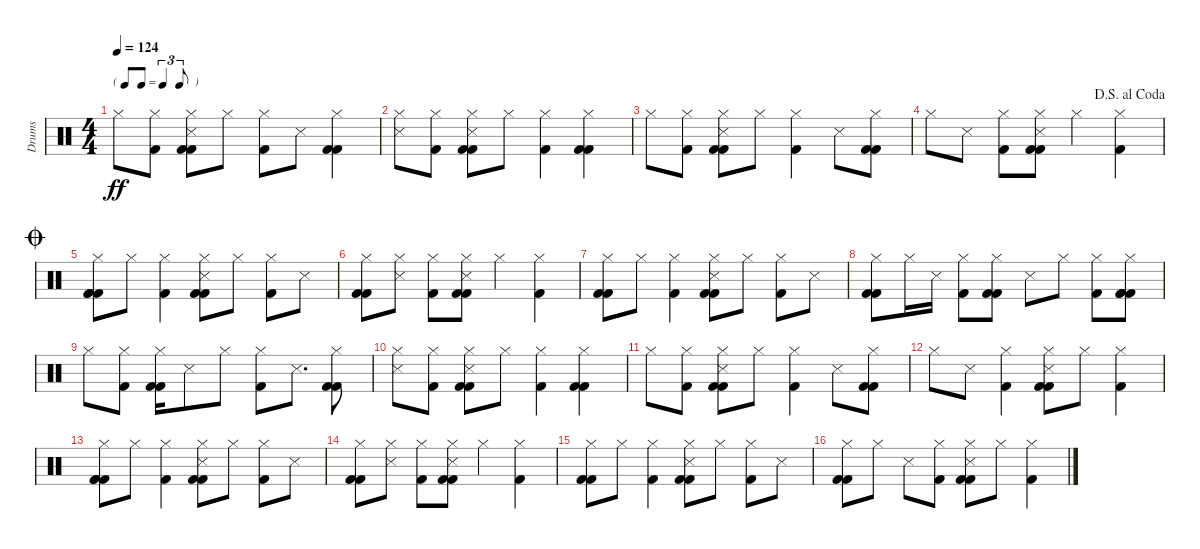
\track ("Drums" "Drums") {instrument percussion}
\staff {score}
\articulation defaults
\ts (4 4)
\tf triplet8th
\tempo 124
\clef neutral
\ks c "Hi-Hat (closed)".8{dy ff}
("Kick (hit) 2" "Hi-Hat (closed)").8 ("Kick (hit) 2" "Kick (hit) 2" "Hi-Hat (closed)" "Snare (side stick) 3").8 "Hi-Hat (closed)".8 ("Kick (hit) 2" "Hi-Hat (closed)").8 "Snare (side stick) 3".8 ("Kick (hit) 2" "Kick (hit) 2" "Hi-Hat (closed)").4 |
("Snare (side stick) 3" "Hi-Hat (closed)").8 ("Kick (hit) 2" "Hi-Hat (closed)").8 ("Snare (side stick) 3" "Kick (hit) 2" "Kick (hit) 2" "Hi-Hat (closed)").8 "Hi-Hat (closed)".8 ("Kick (hit) 2" "Hi-Hat (closed)").4 ("Kick (hit) 2" "Kick (hit) 2" "Hi-Hat (closed)").4 |
"Hi-Hat (closed)".8 ("Kick (hit) 2" "Hi-Hat (closed)").8 ("Snare (side stick) 3" "Kick (hit) 2" "Kick (hit) 2" "Hi-Hat (closed)").8 "Hi-Hat (closed)".8 ("Kick (hit) 2" "Hi-Hat (closed)").4 "Snare (side stick) 3".8 ("Kick (hit) 2" "Kick (hit) 2" "Hi-Hat (closed)").8 |
\jump dalsegnoalcoda "Hi-Hat (closed)".8 "Snare (side stick) 3".8
("Kick (hit) 2" "Hi-Hat (closed)").8 ("Kick (hit) 2" "Kick (hit) 2" "Hi-Hat (closed)" "Snare (side stick) 3").8 "Hi-Hat (closed)".4 ("Kick (hit) 2" "Hi-Hat (closed)").4 |
\jump coda
("Kick (hit) 2" "Kick (hit) 2" "Kick (hit) 2" "Hi-Hat (closed)").8 "Hi-Hat (closed)".8 ("Kick (hit) 2" "Hi-Hat (closed)").4 ("Kick (hit) 2" "Kick (hit) 2" "Hi-Hat (closed)" "Snare (side stick) 3").8 "Hi-Hat (closed)".8 ("Kick (hit) 2" "Hi-Hat (closed)").8 "Snare (side stick) 3".8 |
("Kick (hit) 2" "Kick (hit) 2" "Hi-Hat (closed)").8 ("Snare (side stick) 3" "Hi-Hat (closed)").8 ("Kick (hit) 2" "Hi-Hat (closed)").8 ("Snare (side stick) 3" "Kick (hit) 2" "Kick (hit) 2" "Hi-Hat (closed)").8 "Hi-Hat (closed)".4 ("Kick (hit) 2" "Hi-Hat (closed)").4 |
("Kick (hit) 2" "Kick (hit) 2" "Hi-Hat (closed)").8 "Hi-Hat (closed)".8 ("Kick (hit) 2" "Hi-Hat (closed)").4 ("Snare (side stick) 3" "Kick (hit) 2" "Kick (hit) 2" "Hi-Hat (closed)").8 "Hi-Hat (closed)".8 ("Kick (hit) 2" "Hi-Hat (closed)").8 "Snare (side stick) 3".8 |
("Kick (hit) 2" "Kick (hit) 2" "Hi-Hat (closed)").8 "Hi-Hat (closed)".16 "Snare (side stick) 3".16 ("Kick (hit) 2" "Hi-Hat (closed)").8 ("Kick (hit) 2" "Kick (hit) 2" "Hi-Hat (closed)").8 "Snare (side stick) 3".8 "Hi-Hat (closed)".8 ("Kick (hit) 2" "Hi-Hat (closed)").8 ("Kick (hit) 2" "Kick (hit) 2" "Kick (hit) 2" "Hi-Hat (closed)").8 |
"Hi-Hat (closed)".8 ("Kick (hit) 2" "Hi-Hat (closed)").8 ("Kick (hit) 2" "Kick (hit) 2" "Hi-Hat (closed)").16 "Snare (side stick) 3".8 "Hi-Hat (closed)".8 ("Kick (hit) 2" "Hi-Hat (closed)").8 "Snare (side stick) 3".8{d} ("Kick (hit) 2" "Kick (hit) 2" "Hi-Hat (closed)").8 |
("Snare (side stick) 3" "Hi-Hat (closed)").8 ("Kick (hit) 2" "Hi-Hat (closed)").8 ("Snare (side stick) 3" "Kick (hit) 2" "Kick (hit) 2" "Hi-Hat (closed)").8 "Hi-Hat (closed)".8 ("Kick (hit) 2" "Hi-Hat (closed)").4 ("Kick (hit) 2" "Kick (hit) 2" "Hi-Hat (closed)").4 |
"Hi-Hat (closed)".8 ("Kick (hit) 2" "Hi-Hat (closed)").8 ("Snare (side stick) 3" "Kick (hit) 2" "Kick (hit) 2" "Hi-Hat (closed)").8 "Hi-Hat (closed)".8 ("Kick (hit) 2" "Hi-Hat (closed)").4 "Snare (side stick) 3".8 ("Kick (hit) 2" "Kick (hit) 2" "Hi-Hat (closed)").8 |
"Hi-Hat (closed)".8 "Snare (side stick) 3".8 ("Kick (hit) 2" "Hi-Hat (closed)").4 ("Kick (hit) 2" "Kick (hit) 2" "Hi-Hat (closed)" "Snare (side stick) 3").8 "Hi-Hat (closed)".8 ("Kick (hit) 2" "Hi-Hat (closed)").4 |
("Kick (hit) 2" "Kick (hit) 2" "Kick (hit) 2" "Hi-Hat (closed)").8 "Hi-Hat (closed)".8 ("Kick (hit) 2" "Hi-Hat (closed)").4 ("Kick (hit) 2" "Kick (hit) 2" "Hi-Hat (closed)" "Snare (side stick) 3").8 "Hi-Hat (closed)".8 ("Kick (hit) 2" "Hi-Hat (closed)").8 "Snare (side stick) 3".8 |
("Kick (hit) 2" "Kick (hit) 2" "Hi-Hat (closed)").8 ("Snare (side stick) 3" "Hi-Hat (closed)").8 ("Kick (hit) 2" "Hi-Hat (closed)").8 ("Snare (side stick) 3" "Kick (hit) 2" "Kick (hit) 2" "Hi-Hat (closed)").8 "Hi-Hat (closed)".4 ("Kick (hit) 2" "Hi-Hat (closed)").4 |
("Kick (hit) 2" "Kick (hit) 2" "Hi-Hat (closed)").8 "Hi-Hat (closed)".8 ("Kick (hit) 2" "Hi-Hat (closed)").4 ("Snare (side stick) 3" "Kick (hit) 2" "Kick (hit) 2" "Hi-Hat (closed)").8 "Hi-Hat (closed)".8 ("Kick (hit) 2" "Hi-Hat (closed)").8 "Snare (side stick) 3".8 |
("Kick (hit) 2" "Kick (hit) 2" "Hi-Hat (closed)").8 "Hi-Hat (closed)".8 "Snare (side stick) 3".8 ("Kick (hit) 2" "Hi-Hat (closed)").8 ("Kick (hit) 2" "Kick (hit) 2" "Hi-Hat (closed)" "Snare (side stick) 3").8 "Hi-Hat (closed)".8 ("Kick (hit) 2" "Hi-Hat (closed)").4
